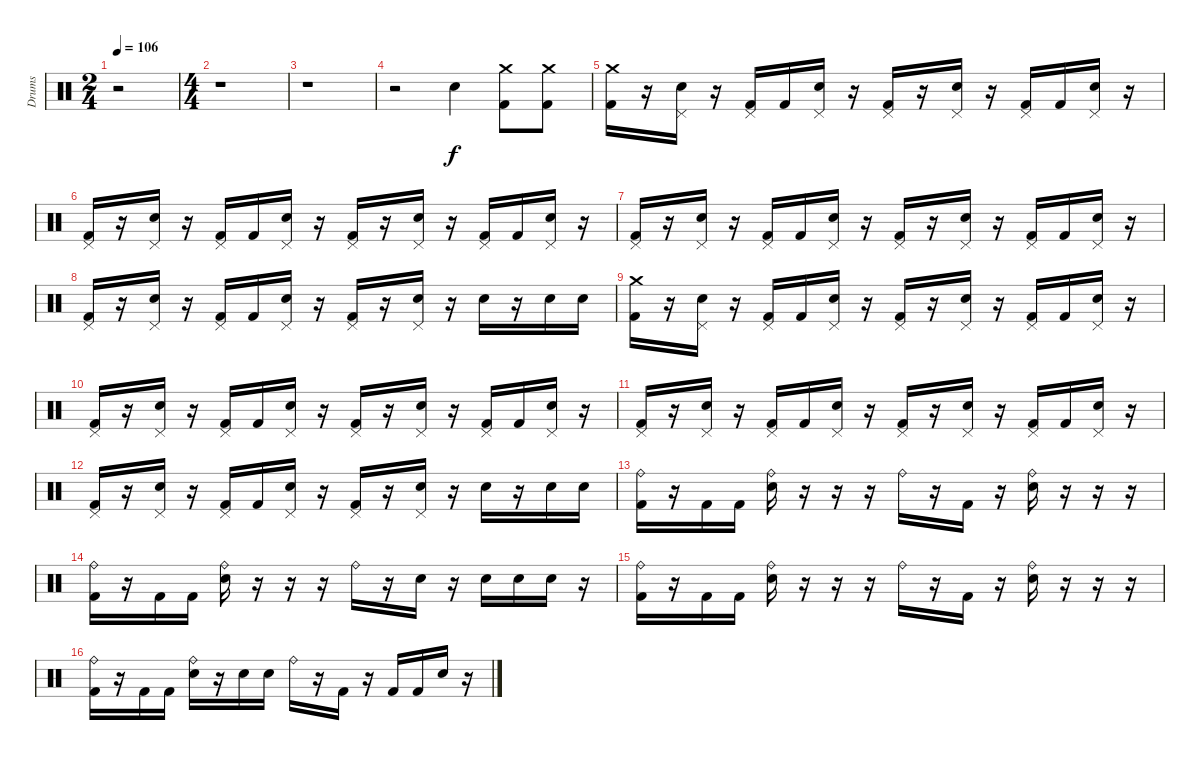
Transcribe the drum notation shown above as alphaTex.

\track ("Drums" "Drums") {instrument percussion}
\staff {score}
\articulation defaults
\ts (2 4)
\tempo 106
\clef neutral
\ks c
r.2{dy f} |
\ts (4 4)
r.1 |
r.1 |
r.2 "Electric Snare (hit)".4 ("Kick (hit) 2" "Crash medium (hit)").8 ("Kick (hit) 2" "Crash medium (hit)").8 |
("Kick (hit) 2" "Crash medium (hit)").16 r.16 ("Pedal Hi-Hat (hit)" "Electric Snare (hit)").16 r.16 ("Kick (hit) 2" "Pedal Hi-Hat (hit)").16 "Kick (hit) 2".16 ("Pedal Hi-Hat (hit)" "Electric Snare (hit)").16 r.16 ("Kick (hit) 2" "Pedal Hi-Hat (hit)").16 r.16 ("Pedal Hi-Hat (hit)" "Electric Snare (hit)").16 r.16 ("Kick (hit) 2" "Pedal Hi-Hat (hit)").16 "Kick (hit) 2".16 ("Pedal Hi-Hat (hit)" "Electric Snare (hit)").16 r.16 |
("Kick (hit) 2" "Pedal Hi-Hat (hit)").16 r.16 ("Pedal Hi-Hat (hit)" "Electric Snare (hit)").16 r.16 ("Kick (hit) 2" "Pedal Hi-Hat (hit)").16 "Kick (hit) 2".16 ("Pedal Hi-Hat (hit)" "Electric Snare (hit)").16 r.16 ("Kick (hit) 2" "Pedal Hi-Hat (hit)").16 r.16 ("Pedal Hi-Hat (hit)" "Electric Snare (hit)").16 r.16 ("Kick (hit) 2" "Pedal Hi-Hat (hit)").16 "Kick (hit) 2".16 ("Pedal Hi-Hat (hit)" "Electric Snare (hit)").16 r.16 |
("Kick (hit) 2" "Pedal Hi-Hat (hit)").16 r.16 ("Pedal Hi-Hat (hit)" "Electric Snare (hit)").16 r.16 ("Kick (hit) 2" "Pedal Hi-Hat (hit)").16 "Kick (hit) 2".16 ("Pedal Hi-Hat (hit)" "Electric Snare (hit)").16 r.16 ("Kick (hit) 2" "Pedal Hi-Hat (hit)").16 r.16 ("Pedal Hi-Hat (hit)" "Electric Snare (hit)").16 r.16 ("Kick (hit) 2" "Pedal Hi-Hat (hit)").16 "Kick (hit) 2".16 ("Pedal Hi-Hat (hit)" "Electric Snare (hit)").16 r.16 |
("Kick (hit) 2" "Pedal Hi-Hat (hit)").16 r.16 ("Pedal Hi-Hat (hit)" "Electric Snare (hit)").16 r.16 ("Kick (hit) 2" "Pedal Hi-Hat (hit)").16 "Kick (hit) 2".16 ("Pedal Hi-Hat (hit)" "Electric Snare (hit)").16 r.16 ("Kick (hit) 2" "Pedal Hi-Hat (hit)").16 r.16 ("Pedal Hi-Hat (hit)" "Electric Snare (hit)").16 r.16 "Electric Snare (hit)".16 r.16 "Electric Snare (hit)".16 "Electric Snare (hit)".16 |
("Kick (hit) 2" "Crash medium (hit)").16 r.16 ("Pedal Hi-Hat (hit)" "Electric Snare (hit)").16 r.16 ("Kick (hit) 2" "Pedal Hi-Hat (hit)").16 "Kick (hit) 2".16 ("Pedal Hi-Hat (hit)" "Electric Snare (hit)").16 r.16 ("Kick (hit) 2" "Pedal Hi-Hat (hit)").16 r.16 ("Pedal Hi-Hat (hit)" "Electric Snare (hit)").16 r.16 ("Kick (hit) 2" "Pedal Hi-Hat (hit)").16 "Kick (hit) 2".16 ("Pedal Hi-Hat (hit)" "Electric Snare (hit)").16 r.16 |
("Kick (hit) 2" "Pedal Hi-Hat (hit)").16 r.16 ("Pedal Hi-Hat (hit)" "Electric Snare (hit)").16 r.16 ("Kick (hit) 2" "Pedal Hi-Hat (hit)").16 "Kick (hit) 2".16 ("Pedal Hi-Hat (hit)" "Electric Snare (hit)").16 r.16 ("Kick (hit) 2" "Pedal Hi-Hat (hit)").16 r.16 ("Pedal Hi-Hat (hit)" "Electric Snare (hit)").16 r.16 ("Kick (hit) 2" "Pedal Hi-Hat (hit)").16 "Kick (hit) 2".16 ("Pedal Hi-Hat (hit)" "Electric Snare (hit)").16 r.16 |
("Kick (hit) 2" "Pedal Hi-Hat (hit)").16 r.16 ("Pedal Hi-Hat (hit)" "Electric Snare (hit)").16 r.16 ("Kick (hit) 2" "Pedal Hi-Hat (hit)").16 "Kick (hit) 2".16 ("Pedal Hi-Hat (hit)" "Electric Snare (hit)").16 r.16 ("Kick (hit) 2" "Pedal Hi-Hat (hit)").16 r.16 ("Pedal Hi-Hat (hit)" "Electric Snare (hit)").16 r.16 ("Kick (hit) 2" "Pedal Hi-Hat (hit)").16 "Kick (hit) 2".16 ("Pedal Hi-Hat (hit)" "Electric Snare (hit)").16 r.16 |
("Kick (hit) 2" "Pedal Hi-Hat (hit)").16 r.16 ("Pedal Hi-Hat (hit)" "Electric Snare (hit)").16 r.16 ("Kick (hit) 2" "Pedal Hi-Hat (hit)").16 "Kick (hit) 2".16 ("Pedal Hi-Hat (hit)" "Electric Snare (hit)").16 r.16 ("Kick (hit) 2" "Pedal Hi-Hat (hit)").16 r.16 ("Pedal Hi-Hat (hit)" "Electric Snare (hit)").16 r.16 "Electric Snare (hit)".16 r.16 "Electric Snare (hit)".16 "Electric Snare (hit)".16 |
("Kick (hit) 2" "Ride (bell)").16 r.16 "Kick (hit) 2".16 "Kick (hit) 2".16 ("Ride (bell)" "Electric Snare (hit)").16 r.16 r.16 r.16 "Ride (bell)".16 r.16 "Kick (hit) 2".16 r.16 ("Ride (bell)" "Electric Snare (hit)").16 r.16 r.16 r.16 |
("Kick (hit) 2" "Ride (bell)").16 r.16 "Kick (hit) 2".16 "Kick (hit) 2".16 ("Ride (bell)" "Electric Snare (hit)").16 r.16 r.16 r.16 "Ride (bell)".16 r.16 "Electric Snare (hit)".16 r.16 "Electric Snare (hit)".16 "Electric Snare (hit)".16 "Electric Snare (hit)".16 r.16 |
("Kick (hit) 2" "Ride (bell)").16 r.16 "Kick (hit) 2".16 "Kick (hit) 2".16 ("Ride (bell)" "Electric Snare (hit)").16 r.16 r.16 r.16 "Ride (bell)".16 r.16 "Kick (hit) 2".16 r.16 ("Ride (bell)" "Electric Snare (hit)").16 r.16 r.16 r.16 |
("Kick (hit) 2" "Ride (bell)").16 r.16 "Kick (hit) 2".16 "Kick (hit) 2".16 ("Ride (bell)" "Electric Snare (hit)").16 r.16 "Electric Snare (hit)".16 "Electric Snare (hit)".16 "Ride (bell)".16 r.16 "Kick (hit) 2".16 r.16 "Kick (hit) 2".16 "Kick (hit) 2".16 "Electric Snare (hit)".16 r.16
